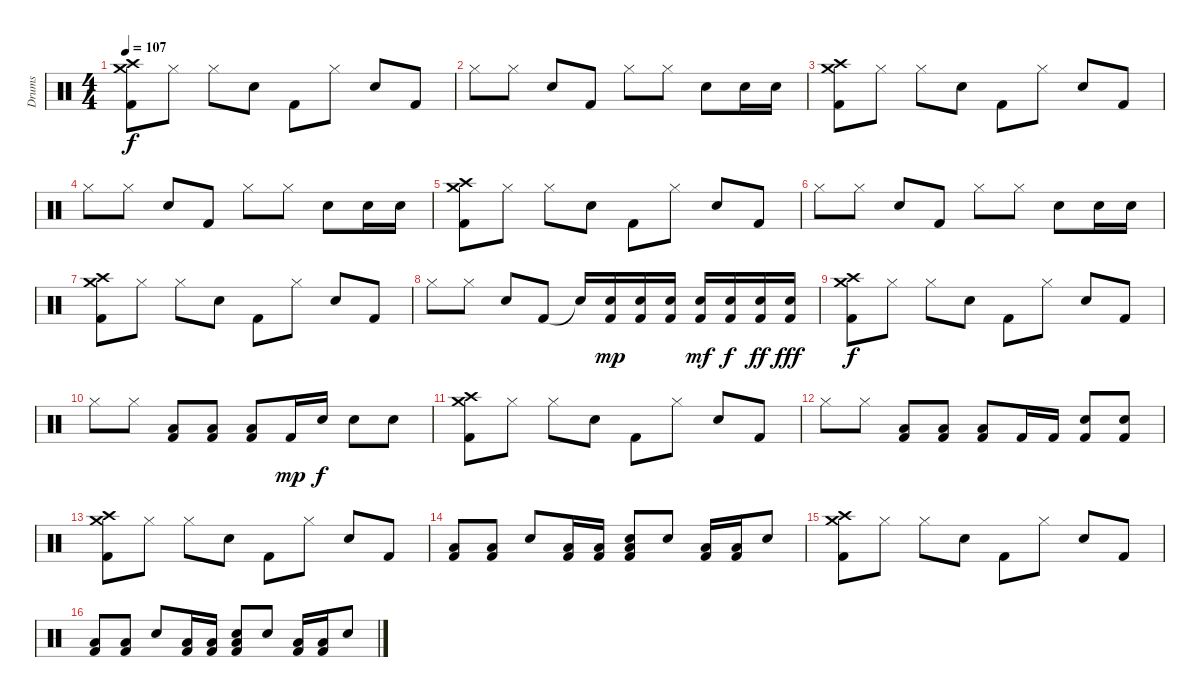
\track ("Drums" "Drums") {instrument percussion}
\staff {score}
\articulation defaults
\ts (4 4)
\tempo 107
\clef neutral
\ks c
("Crash medium (hit)" "Crash high (hit)" "Kick (hit) 2").8{dy f} "Hi-Hat (closed)".8 "Hi-Hat (closed)".8 "Snare (hit) 2".8 "Kick (hit) 2".8 "Hi-Hat (closed)".8 "Snare (hit) 2".8 "Kick (hit) 2".8 |
"Hi-Hat (closed)".8 "Hi-Hat (closed)".8 "Snare (hit) 2".8 "Kick (hit) 2".8 "Hi-Hat (closed)".8 "Hi-Hat (closed)".8 "Snare (hit) 2".8 "Snare (hit) 2".16 "Snare (hit) 2".16 |
("Crash medium (hit)" "Crash high (hit)" "Kick (hit) 2").8 "Hi-Hat (closed)".8 "Hi-Hat (closed)".8 "Snare (hit) 2".8 "Kick (hit) 2".8 "Hi-Hat (closed)".8 "Snare (hit) 2".8 "Kick (hit) 2".8 |
"Hi-Hat (closed)".8 "Hi-Hat (closed)".8 "Snare (hit) 2".8 "Kick (hit) 2".8 "Hi-Hat (closed)".8 "Hi-Hat (closed)".8 "Snare (hit) 2".8 "Snare (hit) 2".16 "Snare (hit) 2".16 |
("Crash medium (hit)" "Crash high (hit)" "Kick (hit) 2").8 "Hi-Hat (closed)".8 "Hi-Hat (closed)".8 "Snare (hit) 2".8 "Kick (hit) 2".8 "Hi-Hat (closed)".8 "Snare (hit) 2".8 "Kick (hit) 2".8 |
"Hi-Hat (closed)".8 "Hi-Hat (closed)".8 "Snare (hit) 2".8 "Kick (hit) 2".8 "Hi-Hat (closed)".8 "Hi-Hat (closed)".8 "Snare (hit) 2".8 "Snare (hit) 2".16 "Snare (hit) 2".16 |
("Crash medium (hit)" "Crash high (hit)" "Kick (hit) 2").8 "Hi-Hat (closed)".8 "Hi-Hat (closed)".8 "Snare (hit) 2".8 "Kick (hit) 2".8 "Hi-Hat (closed)".8 "Snare (hit) 2".8 "Kick (hit) 2".8 |
"Hi-Hat (closed)".8 "Hi-Hat (closed)".8 "Snare (hit) 2".8 "Kick (hit) 2".8 "Snare (hit)"{t}.16 ("Snare (hit) 2" "Kick (hit) 2").16{dy mp} ("Snare (hit) 2" "Kick (hit) 2").16 ("Snare (hit) 2" "Kick (hit) 2").16 ("Snare (hit) 2" "Kick (hit) 2").16{dy mf} ("Snare (hit) 2" "Kick (hit) 2").16{dy f} ("Snare (hit) 2" "Kick (hit) 2").16{dy ff} ("Snare (hit) 2" "Kick (hit) 2").16{dy fff} |
("Crash medium (hit)" "Crash high (hit)" "Kick (hit) 2").8{dy f} "Hi-Hat (closed)".8 "Hi-Hat (closed)".8 "Snare (hit) 2".8 "Kick (hit) 2".8 "Hi-Hat (closed)".8 "Snare (hit) 2".8 "Kick (hit) 2".8 |
"Hi-Hat (closed)".8 "Hi-Hat (closed)".8 ("Low Tom (hit)" "Kick (hit) 2").8 ("Low Tom (hit)" "Kick (hit) 2").8 ("Low Tom (hit)" "Kick (hit) 2").8 "Kick (hit) 2".16{dy mp} "Snare (hit) 2".16{dy f} "Snare (hit) 2".8 "Snare (hit) 2".8 |
("Crash medium (hit)" "Crash high (hit)" "Kick (hit) 2").8 "Hi-Hat (closed)".8 "Hi-Hat (closed)".8 "Snare (hit) 2".8 "Kick (hit) 2".8 "Hi-Hat (closed)".8 "Snare (hit) 2".8 "Kick (hit) 2".8 |
"Hi-Hat (closed)".8 "Hi-Hat (closed)".8 ("Low Tom (hit)" "Kick (hit) 2").8 ("Low Tom (hit)" "Kick (hit) 2").8 ("Low Tom (hit)" "Kick (hit) 2").8 "Kick (hit) 2".16 "Kick (hit) 2".16 ("Snare (hit) 2" "Kick (hit) 2").8 ("Snare (hit) 2" "Kick (hit) 2").8 |
("Crash medium (hit)" "Crash high (hit)" "Kick (hit) 2").8 "Hi-Hat (closed)".8 "Hi-Hat (closed)".8 "Snare (hit) 2".8 "Kick (hit) 2".8 "Hi-Hat (closed)".8 "Snare (hit) 2".8 "Kick (hit) 2".8 |
("Low Tom (hit)" "Kick (hit) 2").8 ("Low Tom (hit)" "Kick (hit) 2").8 "Snare (hit) 2".8 ("Low Tom (hit)" "Kick (hit) 2").16 ("Low Tom (hit)" "Kick (hit) 2").16 ("Low Tom (hit)" "Snare (hit) 2" "Kick (hit) 2").8 "Snare (hit) 2".8 ("Low Tom (hit)" "Kick (hit) 2").16 ("Low Tom (hit)" "Kick (hit) 2").16 "Snare (hit) 2".8 |
("Crash medium (hit)" "Crash high (hit)" "Kick (hit) 2").8 "Hi-Hat (closed)".8 "Hi-Hat (closed)".8 "Snare (hit) 2".8 "Kick (hit) 2".8 "Hi-Hat (closed)".8 "Snare (hit) 2".8 "Kick (hit) 2".8 |
("Low Tom (hit)" "Kick (hit) 2").8 ("Low Tom (hit)" "Kick (hit) 2").8 "Snare (hit) 2".8 ("Low Tom (hit)" "Kick (hit) 2").16 ("Low Tom (hit)" "Kick (hit) 2").16 ("Low Tom (hit)" "Snare (hit) 2" "Kick (hit) 2").8 "Snare (hit) 2".8 ("Low Tom (hit)" "Kick (hit) 2").16 ("Low Tom (hit)" "Kick (hit) 2").16 "Snare (hit) 2".8
